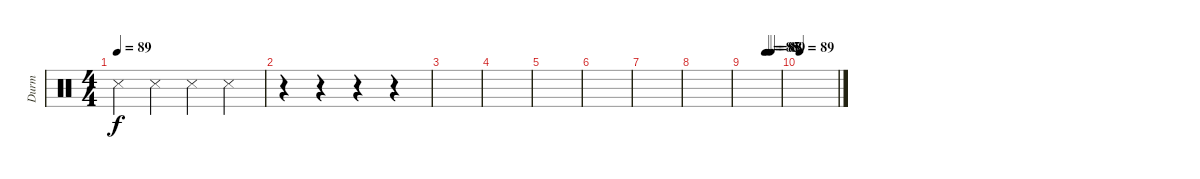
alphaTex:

\track ("Durm" "Durm") {instrument percussion}
\staff {score}
\articulation defaults
\ts (4 4)
\tempo 89
\tempo 83
\tempo 89
\clef neutral
\ks c "Snare (side stick) 3".4{dy f} "Snare (side stick) 3".4 "Snare (side stick) 3".4 "Snare (side stick) 3".4
|
r.4 r.4 r.4 r.4 |
|
|
|
|
|
|
\tempo (85 0.59375)
\tempo (88 0.65625)
\tempo (89 0.75)
|
\tempo 89
